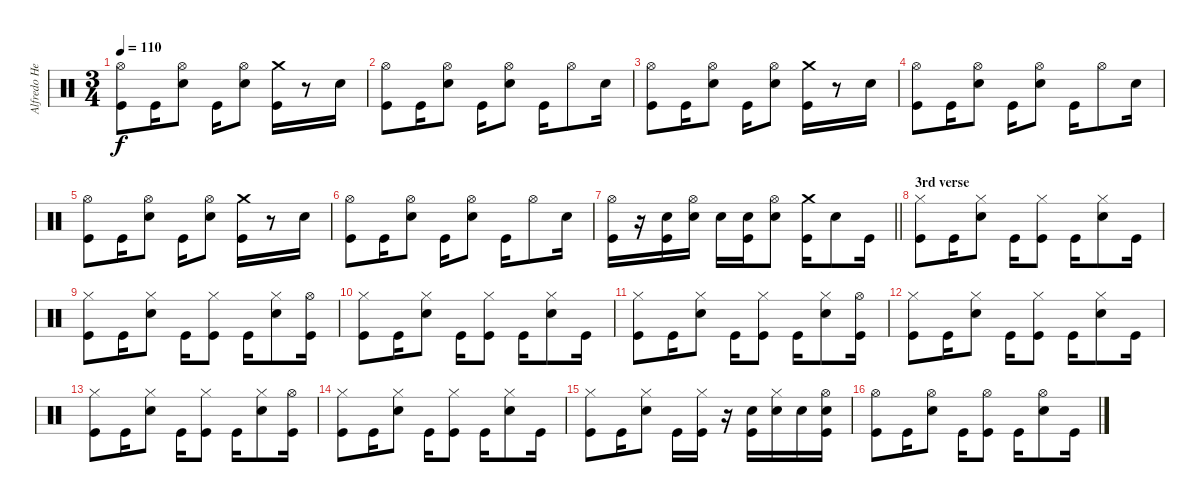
\track ("Alfredo Hernandez" "Alfredo He") {instrument percussion}
\staff {score}
\articulation defaults
\ts (3 4)
\tempo 110
\clef neutral
\ks c
("Kick (hit)" "Hi-Hat (open)").8{dy f} "Kick (hit)".16 ("Electric Snare (hit)" "Hi-Hat (open)").8 "Kick (hit)".16 ("Electric Snare (hit)" "Hi-Hat (open)").8 ("Kick (hit)" "Crash medium (hit)").16 r.8 "Electric Snare (hit)".16 |
("Kick (hit)" "Hi-Hat (open)").8 "Kick (hit)".16 ("Electric Snare (hit)" "Hi-Hat (open)").8 "Kick (hit)".16 ("Electric Snare (hit)" "Hi-Hat (open)").8 "Kick (hit)".16 "Hi-Hat (open)".8 "Electric Snare (hit)".16 |
("Kick (hit)" "Hi-Hat (open)").8 "Kick (hit)".16 ("Electric Snare (hit)" "Hi-Hat (open)").8 "Kick (hit)".16 ("Electric Snare (hit)" "Hi-Hat (open)").8 ("Kick (hit)" "Crash medium (hit)").16 r.8 "Electric Snare (hit)".16 |
("Kick (hit)" "Hi-Hat (open)").8 "Kick (hit)".16 ("Electric Snare (hit)" "Hi-Hat (open)").8 "Kick (hit)".16 ("Electric Snare (hit)" "Hi-Hat (open)").8 "Kick (hit)".16 "Hi-Hat (open)".8 "Electric Snare (hit)".16 |
("Kick (hit)" "Hi-Hat (open)").8 "Kick (hit)".16 ("Electric Snare (hit)" "Hi-Hat (open)").8 "Kick (hit)".16 ("Electric Snare (hit)" "Hi-Hat (open)").8 ("Kick (hit)" "Crash medium (hit)").16 r.8 "Electric Snare (hit)".16 |
("Kick (hit)" "Hi-Hat (open)").8 "Kick (hit)".16 ("Electric Snare (hit)" "Hi-Hat (open)").8 "Kick (hit)".16 ("Electric Snare (hit)" "Hi-Hat (open)").8 "Kick (hit)".16 "Hi-Hat (open)".8 "Electric Snare (hit)".16 |
\barLineRight lightlight
("Kick (hit)" "Hi-Hat (open)").16 r.16 ("Kick (hit)" "Electric Snare (hit)").16 ("Electric Snare (hit)" "Hi-Hat (open)").16 "Electric Snare (hit)".16 ("Kick (hit)" "Electric Snare (hit)").16 ("Electric Snare (hit)" "Hi-Hat (open)").8 ("Kick (hit)" "Crash medium (hit)").16 "Electric Snare (hit)".8 "Kick (hit)".16 |
\section ("" "3rd verse")
("Kick (hit)" "Hi-Hat (closed)").8 "Kick (hit)".16 ("Electric Snare (hit)" "Hi-Hat (closed)").8 "Kick (hit)".16 ("Kick (hit)" "Hi-Hat (closed)").8 "Kick (hit)".16 ("Electric Snare (hit)" "Hi-Hat (closed)").8 "Kick (hit)".16 |
("Kick (hit)" "Hi-Hat (closed)").8 "Kick (hit)".16 ("Electric Snare (hit)" "Hi-Hat (closed)").8 "Kick (hit)".16 ("Kick (hit)" "Hi-Hat (closed)").8 "Kick (hit)".16 ("Electric Snare (hit)" "Hi-Hat (closed)").8 ("Kick (hit)" "Hi-Hat (open)").16 |
("Kick (hit)" "Hi-Hat (closed)").8 "Kick (hit)".16 ("Electric Snare (hit)" "Hi-Hat (closed)").8 "Kick (hit)".16 ("Kick (hit)" "Hi-Hat (closed)").8 "Kick (hit)".16 ("Electric Snare (hit)" "Hi-Hat (closed)").8 "Kick (hit)".16 |
("Kick (hit)" "Hi-Hat (closed)").8 "Kick (hit)".16 ("Electric Snare (hit)" "Hi-Hat (closed)").8 "Kick (hit)".16 ("Kick (hit)" "Hi-Hat (closed)").8 "Kick (hit)".16 ("Electric Snare (hit)" "Hi-Hat (closed)").8 ("Kick (hit)" "Hi-Hat (open)").16 |
("Kick (hit)" "Hi-Hat (closed)").8 "Kick (hit)".16 ("Electric Snare (hit)" "Hi-Hat (closed)").8 "Kick (hit)".16 ("Kick (hit)" "Hi-Hat (closed)").8 "Kick (hit)".16 ("Electric Snare (hit)" "Hi-Hat (closed)").8 "Kick (hit)".16 |
("Kick (hit)" "Hi-Hat (closed)").8 "Kick (hit)".16 ("Electric Snare (hit)" "Hi-Hat (closed)").8 "Kick (hit)".16 ("Kick (hit)" "Hi-Hat (closed)").8 "Kick (hit)".16 ("Electric Snare (hit)" "Hi-Hat (closed)").8 ("Kick (hit)" "Hi-Hat (open)").16 |
("Kick (hit)" "Hi-Hat (closed)").8 "Kick (hit)".16 ("Electric Snare (hit)" "Hi-Hat (closed)").8 "Kick (hit)".16 ("Kick (hit)" "Hi-Hat (closed)").8 "Kick (hit)".16 ("Electric Snare (hit)" "Hi-Hat (closed)").8 "Kick (hit)".16 |
("Kick (hit)" "Hi-Hat (closed)").8 "Kick (hit)".16 ("Electric Snare (hit)" "Hi-Hat (closed)").8 "Kick (hit)".16 ("Kick (hit)" "Hi-Hat (closed)").16 r.16 ("Kick (hit)" "Electric Snare (hit)").16 ("Electric Snare (hit)" "Hi-Hat (closed)").16 "Electric Snare (hit)".16 ("Kick (hit)" "Electric Snare (hit)" "Hi-Hat (open)").16 |
("Kick (hit)" "Hi-Hat (open)").8 "Kick (hit)".16 ("Electric Snare (hit)" "Hi-Hat (open)").8 "Kick (hit)".16 ("Kick (hit)" "Hi-Hat (open)").8 "Kick (hit)".16 ("Electric Snare (hit)" "Hi-Hat (open)").8 "Kick (hit)".16
